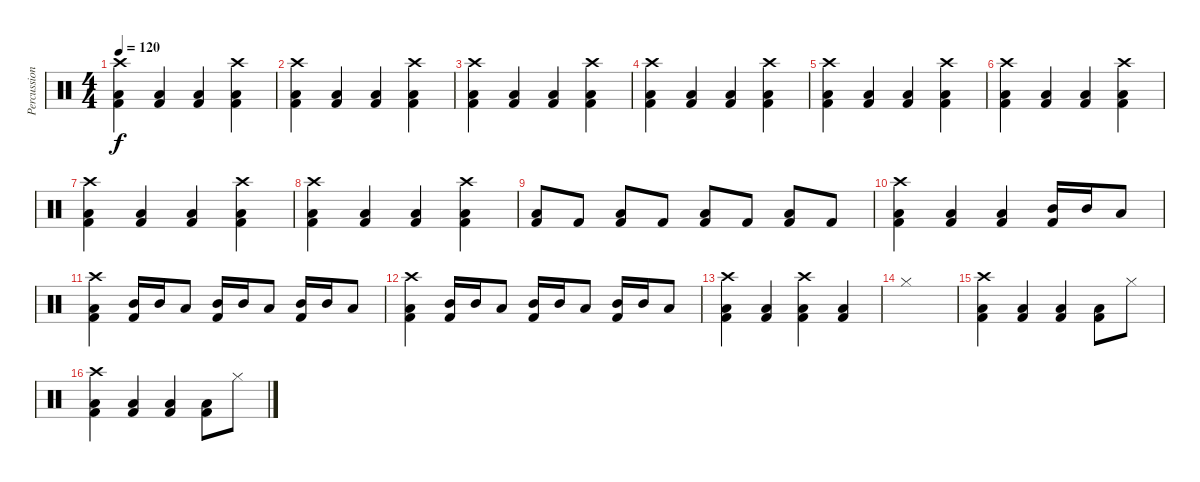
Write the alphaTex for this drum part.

\track ("Percussion" "Percussion") {instrument percussion}
\staff {score}
\articulation defaults
\ts (4 4)
\tempo 120
\clef neutral
\ks c
("Kick (hit) 2" "Low Floor Tom (hit)" "Crash high (hit)").4{dy f} ("Kick (hit) 2" "Low Floor Tom (hit)").4 ("Kick (hit) 2" "Low Floor Tom (hit)").4 ("Kick (hit) 2" "Low Floor Tom (hit)" "Crash high (hit)").4 |
("Kick (hit) 2" "Low Floor Tom (hit)" "Crash high (hit)").4 ("Kick (hit) 2" "Low Floor Tom (hit)").4 ("Kick (hit) 2" "Low Floor Tom (hit)").4 ("Kick (hit) 2" "Low Floor Tom (hit)" "Crash high (hit)").4 |
("Kick (hit) 2" "Low Floor Tom (hit)" "Crash high (hit)").4 ("Kick (hit) 2" "Low Floor Tom (hit)").4 ("Kick (hit) 2" "Low Floor Tom (hit)").4 ("Kick (hit) 2" "Low Floor Tom (hit)" "Crash high (hit)").4 |
("Kick (hit) 2" "Low Floor Tom (hit)" "Crash high (hit)").4 ("Kick (hit) 2" "Low Floor Tom (hit)").4 ("Kick (hit) 2" "Low Floor Tom (hit)").4 ("Kick (hit) 2" "Low Floor Tom (hit)" "Crash high (hit)").4 |
("Kick (hit) 2" "Low Floor Tom (hit)" "Crash high (hit)").4 ("Kick (hit) 2" "Low Floor Tom (hit)").4 ("Kick (hit) 2" "Low Floor Tom (hit)").4 ("Kick (hit) 2" "Low Floor Tom (hit)" "Crash high (hit)").4 |
("Kick (hit) 2" "Low Floor Tom (hit)" "Crash high (hit)").4 ("Kick (hit) 2" "Low Floor Tom (hit)").4 ("Kick (hit) 2" "Low Floor Tom (hit)").4 ("Kick (hit) 2" "Low Floor Tom (hit)" "Crash high (hit)").4 |
("Kick (hit) 2" "Low Floor Tom (hit)" "Crash high (hit)").4 ("Kick (hit) 2" "Low Floor Tom (hit)").4 ("Kick (hit) 2" "Low Floor Tom (hit)").4 ("Kick (hit) 2" "Low Floor Tom (hit)" "Crash high (hit)").4 |
("Kick (hit) 2" "Low Floor Tom (hit)" "Crash high (hit)").4 ("Kick (hit) 2" "Low Floor Tom (hit)").4 ("Kick (hit) 2" "Low Floor Tom (hit)").4 ("Kick (hit) 2" "Low Floor Tom (hit)" "Crash high (hit)").4 |
("Kick (hit) 2" "Low Floor Tom (hit)").8 "Kick (hit) 2".8 ("Kick (hit) 2" "Low Floor Tom (hit)").8 "Kick (hit) 2".8 ("Kick (hit) 2" "Low Floor Tom (hit)").8 "Kick (hit) 2".8 ("Kick (hit) 2" "Low Floor Tom (hit)").8 "Kick (hit) 2".8 |
("Kick (hit) 2" "Low Floor Tom (hit)" "Crash high (hit)").4 ("Kick (hit) 2" "Low Floor Tom (hit)").4 ("Kick (hit) 2" "Low Floor Tom (hit)").4 ("Kick (hit) 2" "Mid Tom (hit)").16 "Mid Tom (hit)".16 "Low Tom (hit)".8 |
("Kick (hit) 2" "Low Floor Tom (hit)" "Crash high (hit)").4 ("Kick (hit) 2" "Mid Tom (hit)").16 "Mid Tom (hit)".16 "Low Tom (hit)".8 ("Kick (hit) 2" "Mid Tom (hit)").16 "Mid Tom (hit)".16 "Low Tom (hit)".8 ("Kick (hit) 2" "Mid Tom (hit)").16 "Mid Tom (hit)".16 "Low Tom (hit)".8 |
("Kick (hit) 2" "Low Floor Tom (hit)" "Crash high (hit)").4 ("Kick (hit) 2" "Mid Tom (hit)").16 "Mid Tom (hit)".16 "Low Tom (hit)".8 ("Kick (hit) 2" "Mid Tom (hit)").16 "Mid Tom (hit)".16 "Low Tom (hit)".8 ("Kick (hit) 2" "Mid Tom (hit)").16 "Mid Tom (hit)".16 "Low Tom (hit)".8 |
("Kick (hit) 2" "Low Floor Tom (hit)" "Crash high (hit)").4 ("Kick (hit) 2" "Low Floor Tom (hit)").4 ("Kick (hit) 2" "Low Floor Tom (hit)" "Crash high (hit)").4 ("Kick (hit) 2" "Low Floor Tom (hit)").4 |
"Hi-Hat (closed)".1 |
("Kick (hit) 2" "Low Floor Tom (hit)" "Crash high (hit)").4 ("Kick (hit) 2" "Low Floor Tom (hit)").4 ("Kick (hit) 2" "Low Floor Tom (hit)").4 ("Kick (hit) 2" "Low Floor Tom (hit)").8 "Hi-Hat (closed)".8 |
("Kick (hit) 2" "Low Floor Tom (hit)" "Crash high (hit)").4 ("Kick (hit) 2" "Low Floor Tom (hit)").4 ("Kick (hit) 2" "Low Floor Tom (hit)").4 ("Kick (hit) 2" "Low Floor Tom (hit)").8 "Hi-Hat (closed)".8
